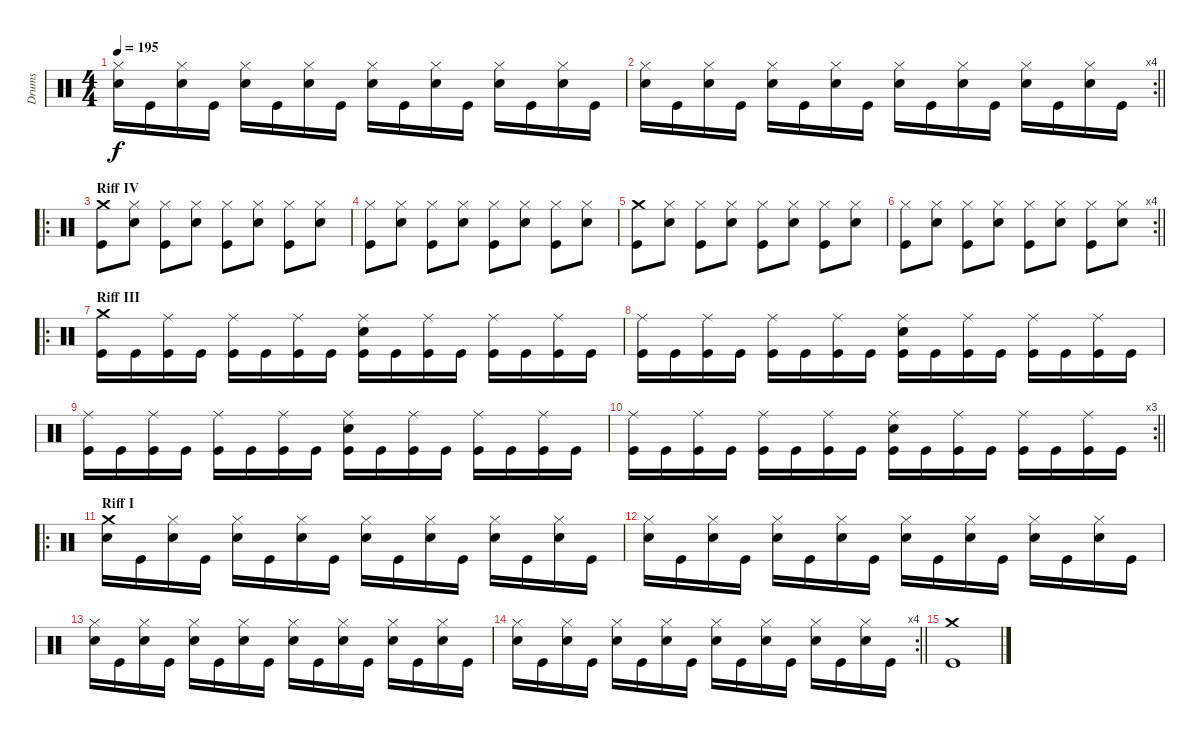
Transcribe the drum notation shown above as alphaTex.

\track ("Drums" "Drums") {instrument percussion}
\staff {score}
\articulation defaults
\ts (4 4)
\tempo 195
\clef neutral
\ks c
("Hi-Hat (closed)" "Electric Snare (hit)").16{dy f} "Kick (hit)".16 ("Hi-Hat (closed)" "Electric Snare (hit)").16 "Kick (hit)".16 ("Hi-Hat (closed)" "Electric Snare (hit)").16 "Kick (hit)".16 ("Hi-Hat (closed)" "Electric Snare (hit)").16 "Kick (hit)".16 ("Hi-Hat (closed)" "Electric Snare (hit)").16 "Kick (hit)".16 ("Hi-Hat (closed)" "Electric Snare (hit)").16 "Kick (hit)".16 ("Hi-Hat (closed)" "Electric Snare (hit)").16 "Kick (hit)".16 ("Hi-Hat (closed)" "Electric Snare (hit)").16 "Kick (hit)".16 |
\rc 4
\barLineRight lightlight
("Hi-Hat (closed)" "Electric Snare (hit)").16 "Kick (hit)".16 ("Hi-Hat (closed)" "Electric Snare (hit)").16 "Kick (hit)".16 ("Hi-Hat (closed)" "Electric Snare (hit)").16 "Kick (hit)".16 ("Hi-Hat (closed)" "Electric Snare (hit)").16 "Kick (hit)".16 ("Hi-Hat (closed)" "Electric Snare (hit)").16 "Kick (hit)".16 ("Hi-Hat (closed)" "Electric Snare (hit)").16 "Kick (hit)".16 ("Hi-Hat (closed)" "Electric Snare (hit)").16 "Kick (hit)".16 ("Hi-Hat (closed)" "Electric Snare (hit)").16 "Kick (hit)".16 |
\ro
\section ("" "Riff IV")
("Crash medium (hit)" "Kick (hit)").8 ("Hi-Hat (closed)" "Electric Snare (hit)").8 ("Hi-Hat (closed)" "Kick (hit)").8 ("Hi-Hat (closed)" "Electric Snare (hit)").8 ("Hi-Hat (closed)" "Kick (hit)").8 ("Hi-Hat (closed)" "Electric Snare (hit)").8 ("Hi-Hat (closed)" "Kick (hit)").8 ("Hi-Hat (closed)" "Electric Snare (hit)").8 |
("Hi-Hat (closed)" "Kick (hit)").8 ("Hi-Hat (closed)" "Electric Snare (hit)").8 ("Hi-Hat (closed)" "Kick (hit)").8 ("Hi-Hat (closed)" "Electric Snare (hit)").8 ("Hi-Hat (closed)" "Kick (hit)").8 ("Hi-Hat (closed)" "Electric Snare (hit)").8 ("Hi-Hat (closed)" "Kick (hit)").8 ("Hi-Hat (closed)" "Electric Snare (hit)").8 |
("Crash medium (hit)" "Kick (hit)").8 ("Hi-Hat (closed)" "Electric Snare (hit)").8 ("Hi-Hat (closed)" "Kick (hit)").8 ("Hi-Hat (closed)" "Electric Snare (hit)").8 ("Hi-Hat (closed)" "Kick (hit)").8 ("Hi-Hat (closed)" "Electric Snare (hit)").8 ("Hi-Hat (closed)" "Kick (hit)").8 ("Hi-Hat (closed)" "Electric Snare (hit)").8 |
\rc 4
\barLineRight lightlight
("Hi-Hat (closed)" "Kick (hit)").8 ("Hi-Hat (closed)" "Electric Snare (hit)").8 ("Hi-Hat (closed)" "Kick (hit)").8 ("Hi-Hat (closed)" "Electric Snare (hit)").8 ("Hi-Hat (closed)" "Kick (hit)").8 ("Hi-Hat (closed)" "Electric Snare (hit)").8 ("Hi-Hat (closed)" "Kick (hit)").8 ("Hi-Hat (closed)" "Electric Snare (hit)").8 |
\ro
\section ("" "Riff III")
("Crash medium (hit)" "Kick (hit)").16 "Kick (hit)".16 ("Ride (middle)" "Kick (hit)").16 "Kick (hit)".16 ("Ride (middle)" "Kick (hit)").16 "Kick (hit)".16 ("Ride (middle)" "Kick (hit)").16 "Kick (hit)".16 ("Ride (middle)" "Electric Snare (hit)" "Kick (hit)").16 "Kick (hit)".16 ("Ride (middle)" "Kick (hit)").16 "Kick (hit)".16 ("Ride (middle)" "Kick (hit)").16 "Kick (hit)".16 ("Ride (middle)" "Kick (hit)").16 "Kick (hit)".16 |
("Ride (middle)" "Kick (hit)").16 "Kick (hit)".16 ("Ride (middle)" "Kick (hit)").16 "Kick (hit)".16 ("Ride (middle)" "Kick (hit)").16 "Kick (hit)".16 ("Ride (middle)" "Kick (hit)").16 "Kick (hit)".16 ("Ride (middle)" "Electric Snare (hit)" "Kick (hit)").16 "Kick (hit)".16 ("Ride (middle)" "Kick (hit)").16 "Kick (hit)".16 ("Ride (middle)" "Kick (hit)").16 "Kick (hit)".16 ("Ride (middle)" "Kick (hit)").16 "Kick (hit)".16 |
("Ride (middle)" "Kick (hit)").16 "Kick (hit)".16 ("Ride (middle)" "Kick (hit)").16 "Kick (hit)".16 ("Ride (middle)" "Kick (hit)").16 "Kick (hit)".16 ("Ride (middle)" "Kick (hit)").16 "Kick (hit)".16 ("Ride (middle)" "Electric Snare (hit)" "Kick (hit)").16 "Kick (hit)".16 ("Ride (middle)" "Kick (hit)").16 "Kick (hit)".16 ("Ride (middle)" "Kick (hit)").16 "Kick (hit)".16 ("Ride (middle)" "Kick (hit)").16 "Kick (hit)".16 |
\rc 3
\barLineRight lightlight
("Ride (middle)" "Kick (hit)").16 "Kick (hit)".16 ("Ride (middle)" "Kick (hit)").16 "Kick (hit)".16 ("Ride (middle)" "Kick (hit)").16 "Kick (hit)".16 ("Ride (middle)" "Kick (hit)").16 "Kick (hit)".16 ("Ride (middle)" "Electric Snare (hit)" "Kick (hit)").16 "Kick (hit)".16 ("Ride (middle)" "Kick (hit)").16 "Kick (hit)".16 ("Ride (middle)" "Kick (hit)").16 "Kick (hit)".16 ("Ride (middle)" "Kick (hit)").16 "Kick (hit)".16 |
\ro
\section ("" "Riff I")
("Crash medium (hit)" "Electric Snare (hit)").16 "Kick (hit)".16 ("Hi-Hat (closed)" "Electric Snare (hit)").16 "Kick (hit)".16 ("Hi-Hat (closed)" "Electric Snare (hit)").16 "Kick (hit)".16 ("Hi-Hat (closed)" "Electric Snare (hit)").16 "Kick (hit)".16 ("Hi-Hat (closed)" "Electric Snare (hit)").16 "Kick (hit)".16 ("Hi-Hat (closed)" "Electric Snare (hit)").16 "Kick (hit)".16 ("Hi-Hat (closed)" "Electric Snare (hit)").16 "Kick (hit)".16 ("Hi-Hat (closed)" "Electric Snare (hit)").16 "Kick (hit)".16 |
("Hi-Hat (closed)" "Electric Snare (hit)").16 "Kick (hit)".16 ("Hi-Hat (closed)" "Electric Snare (hit)").16 "Kick (hit)".16 ("Hi-Hat (closed)" "Electric Snare (hit)").16 "Kick (hit)".16 ("Hi-Hat (closed)" "Electric Snare (hit)").16 "Kick (hit)".16 ("Hi-Hat (closed)" "Electric Snare (hit)").16 "Kick (hit)".16 ("Hi-Hat (closed)" "Electric Snare (hit)").16 "Kick (hit)".16 ("Hi-Hat (closed)" "Electric Snare (hit)").16 "Kick (hit)".16 ("Hi-Hat (closed)" "Electric Snare (hit)").16 "Kick (hit)".16 |
("Hi-Hat (closed)" "Electric Snare (hit)").16 "Kick (hit)".16 ("Hi-Hat (closed)" "Electric Snare (hit)").16 "Kick (hit)".16 ("Hi-Hat (closed)" "Electric Snare (hit)").16 "Kick (hit)".16 ("Hi-Hat (closed)" "Electric Snare (hit)").16 "Kick (hit)".16 ("Hi-Hat (closed)" "Electric Snare (hit)").16 "Kick (hit)".16 ("Hi-Hat (closed)" "Electric Snare (hit)").16 "Kick (hit)".16 ("Hi-Hat (closed)" "Electric Snare (hit)").16 "Kick (hit)".16 ("Hi-Hat (closed)" "Electric Snare (hit)").16 "Kick (hit)".16 |
\rc 4
\barLineRight lightlight
("Hi-Hat (closed)" "Electric Snare (hit)").16 "Kick (hit)".16 ("Hi-Hat (closed)" "Electric Snare (hit)").16 "Kick (hit)".16 ("Hi-Hat (closed)" "Electric Snare (hit)").16 "Kick (hit)".16 ("Hi-Hat (closed)" "Electric Snare (hit)").16 "Kick (hit)".16 ("Hi-Hat (closed)" "Electric Snare (hit)").16 "Kick (hit)".16 ("Hi-Hat (closed)" "Electric Snare (hit)").16 "Kick (hit)".16 ("Hi-Hat (closed)" "Electric Snare (hit)").16 "Kick (hit)".16 ("Hi-Hat (closed)" "Electric Snare (hit)").16 "Kick (hit)".16 |
("Crash medium (hit)" "Kick (hit)").1
